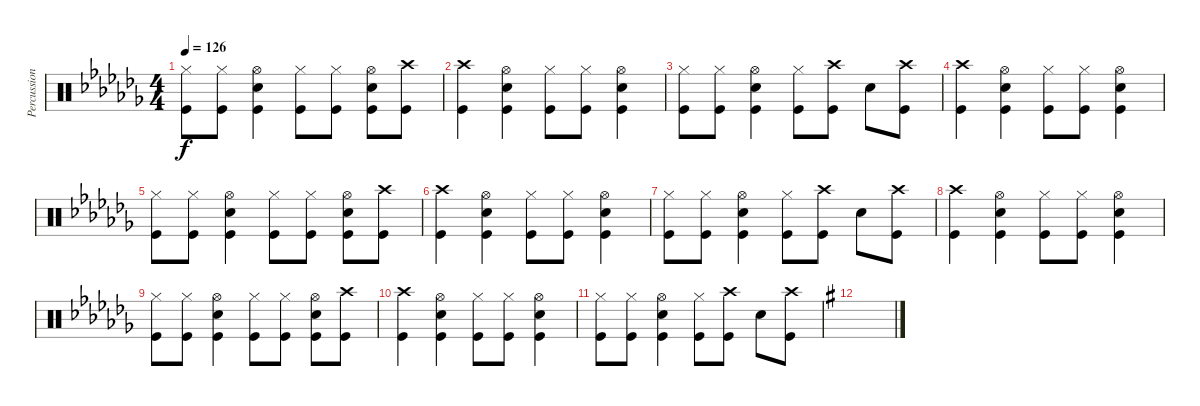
\track ("Percussion" "Percussion") {instrument percussion}
\staff {score}
\articulation defaults
\ts (4 4)
\tempo 126
\clef neutral
\ks cb
("Hi-Hat (closed)" "Kick (hit)").8{dy f} ("Hi-Hat (closed)" "Kick (hit)").8 ("Snare (hit) 2" "Kick (hit)" "Hi-Hat (open)").4 ("Hi-Hat (closed)" "Kick (hit)").8 ("Kick (hit)" "Hi-Hat (closed)").8 ("Kick (hit)" "Snare (hit) 2" "Hi-Hat (open)").8 ("Crash high (hit)" "Kick (hit)").8 |
("Kick (hit)" "Crash high (hit)").4 ("Hi-Hat (open)" "Snare (hit) 2" "Kick (hit)").4 ("Hi-Hat (closed)" "Kick (hit)").8 ("Kick (hit)" "Hi-Hat (closed)").8 ("Hi-Hat (open)" "Snare (hit) 2" "Kick (hit)").4 |
("Kick (hit)" "Hi-Hat (closed)").8 ("Kick (hit)" "Hi-Hat (closed)").8 ("Kick (hit)" "Hi-Hat (open)" "Snare (hit) 2").4 ("Hi-Hat (closed)" "Kick (hit)").8 ("Crash high (hit)" "Kick (hit)").8 "Snare (hit) 2".8 ("Kick (hit)" "Crash high (hit)").8 |
("Kick (hit)" "Crash high (hit)").4 ("Hi-Hat (open)" "Snare (hit) 2" "Kick (hit)").4 ("Hi-Hat (closed)" "Kick (hit)").8 ("Kick (hit)" "Hi-Hat (closed)").8 ("Hi-Hat (open)" "Snare (hit) 2" "Kick (hit)").4 |
("Hi-Hat (closed)" "Kick (hit)").8 ("Hi-Hat (closed)" "Kick (hit)").8 ("Snare (hit) 2" "Kick (hit)" "Hi-Hat (open)").4 ("Hi-Hat (closed)" "Kick (hit)").8 ("Kick (hit)" "Hi-Hat (closed)").8 ("Kick (hit)" "Snare (hit) 2" "Hi-Hat (open)").8 ("Crash high (hit)" "Kick (hit)").8 |
("Kick (hit)" "Crash high (hit)").4 ("Hi-Hat (open)" "Snare (hit) 2" "Kick (hit)").4 ("Hi-Hat (closed)" "Kick (hit)").8 ("Kick (hit)" "Hi-Hat (closed)").8 ("Hi-Hat (open)" "Snare (hit) 2" "Kick (hit)").4 |
("Kick (hit)" "Hi-Hat (closed)").8 ("Kick (hit)" "Hi-Hat (closed)").8 ("Kick (hit)" "Hi-Hat (open)" "Snare (hit) 2").4 ("Hi-Hat (closed)" "Kick (hit)").8 ("Crash high (hit)" "Kick (hit)").8 "Snare (hit) 2".8 ("Kick (hit)" "Crash high (hit)").8 |
("Kick (hit)" "Crash high (hit)").4 ("Hi-Hat (open)" "Snare (hit) 2" "Kick (hit)").4 ("Hi-Hat (closed)" "Kick (hit)").8 ("Kick (hit)" "Hi-Hat (closed)").8 ("Hi-Hat (open)" "Snare (hit) 2" "Kick (hit)").4 |
("Hi-Hat (closed)" "Kick (hit)").8 ("Hi-Hat (closed)" "Kick (hit)").8 ("Snare (hit) 2" "Kick (hit)" "Hi-Hat (open)").4 ("Hi-Hat (closed)" "Kick (hit)").8 ("Kick (hit)" "Hi-Hat (closed)").8 ("Kick (hit)" "Snare (hit) 2" "Hi-Hat (open)").8 ("Crash high (hit)" "Kick (hit)").8 |
("Kick (hit)" "Crash high (hit)").4 ("Hi-Hat (open)" "Snare (hit) 2" "Kick (hit)").4 ("Hi-Hat (closed)" "Kick (hit)").8 ("Kick (hit)" "Hi-Hat (closed)").8 ("Hi-Hat (open)" "Snare (hit) 2" "Kick (hit)").4 |
("Kick (hit)" "Hi-Hat (closed)").8 ("Kick (hit)" "Hi-Hat (closed)").8 ("Kick (hit)" "Hi-Hat (open)" "Snare (hit) 2").4 ("Hi-Hat (closed)" "Kick (hit)").8 ("Crash high (hit)" "Kick (hit)").8 "Snare (hit) 2".8 ("Kick (hit)" "Crash high (hit)").8 |
\ks g
